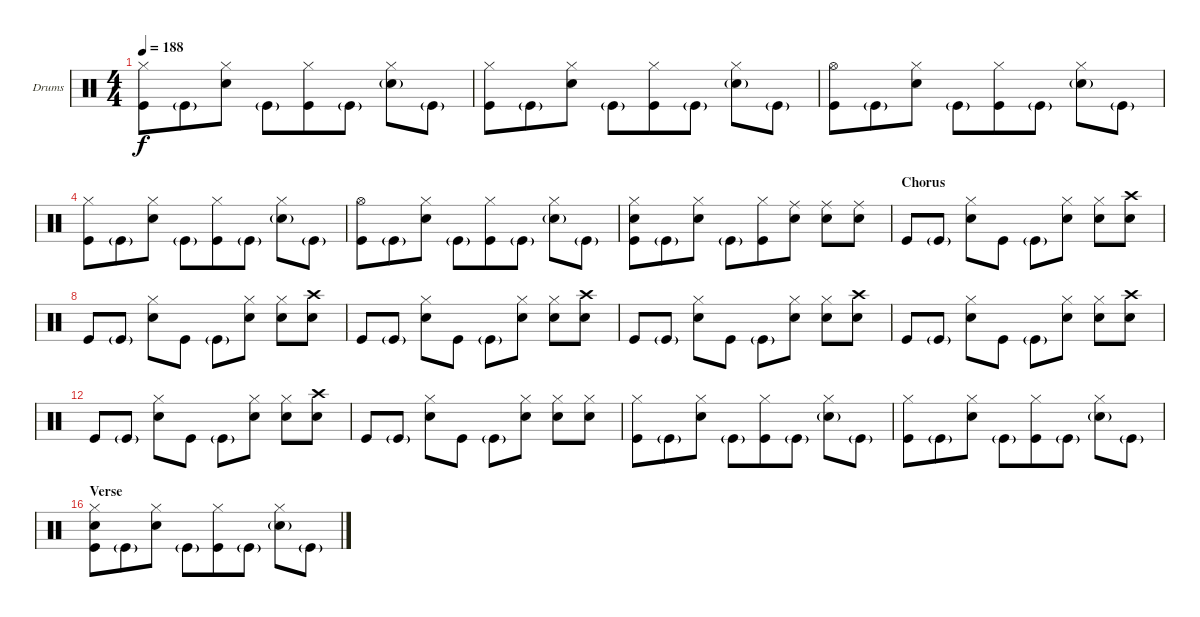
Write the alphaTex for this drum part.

\bracketExtendMode nobrackets
\firstSystemTrackNameOrientation horizontal
\otherSystemsTrackNameOrientation horizontal
\defaultBarNumberDisplay FirstOfSystem
\track ("Drumkit" "Drums") {instrument percussion}
\staff {score}
\articulation defaults
\ts (4 4)
\tempo 188
\clef neutral
\ks c
("Kick (hit)" "Hi-Hat (closed)").8{dy f beam merge} "Kick (hit)"{g}.8{beam merge} ("Snare (hit) 2" "Hi-Hat (closed)").8{beam split} "Kick (hit)"{g}.8{beam merge} ("Kick (hit)" "Hi-Hat (closed)").8 "Kick (hit)"{g}.8 ("Snare (hit) 2"{g} "Hi-Hat (closed)").8 "Kick (hit)"{g}.8 |
("Kick (hit)" "Hi-Hat (closed)").8{beam merge} "Kick (hit)"{g}.8{beam merge} ("Snare (hit) 2" "Hi-Hat (closed)").8{beam split} "Kick (hit)"{g}.8{beam merge} ("Kick (hit)" "Hi-Hat (closed)").8 "Kick (hit)"{g}.8 ("Snare (hit) 2"{g} "Hi-Hat (closed)").8 "Kick (hit)"{g}.8 |
("Hi-Hat (open)" "Kick (hit)").8{beam merge} "Kick (hit)"{g}.8{beam merge} ("Snare (hit) 2" "Hi-Hat (closed)").8{beam split} "Kick (hit)"{g}.8{beam merge} ("Kick (hit)" "Hi-Hat (closed)").8 "Kick (hit)"{g}.8 ("Snare (hit) 2"{g} "Hi-Hat (closed)").8 "Kick (hit)"{g}.8 |
("Kick (hit)" "Hi-Hat (closed)").8{beam merge} "Kick (hit)"{g}.8{beam merge} ("Snare (hit) 2" "Hi-Hat (closed)").8{beam split} "Kick (hit)"{g}.8{beam merge} ("Kick (hit)" "Hi-Hat (closed)").8 "Kick (hit)"{g}.8 ("Snare (hit) 2"{g} "Hi-Hat (closed)").8 "Kick (hit)"{g}.8 |
("Hi-Hat (open)" "Kick (hit)").8{beam merge} "Kick (hit)"{g}.8{beam merge} ("Snare (hit) 2" "Hi-Hat (closed)").8{beam split} "Kick (hit)"{g}.8{beam merge} ("Kick (hit)" "Hi-Hat (closed)").8 "Kick (hit)"{g}.8 ("Snare (hit) 2"{g} "Hi-Hat (closed)").8 "Kick (hit)"{g}.8 |
("Snare (hit) 2" "Kick (hit)" "Hi-Hat (closed)").8{beam merge} "Kick (hit)"{g}.8{beam merge} ("Snare (hit) 2" "Hi-Hat (closed)").8{beam split} "Kick (hit)"{g}.8{beam merge} ("Kick (hit)" "Hi-Hat (closed)").8 ("Snare (hit) 2" "Ride (middle)").8 ("Snare (hit) 2" "Ride (middle)").8 ("Snare (hit) 2" "Ride (middle)").8 |
\section ("" "Chorus")
"Kick (hit)".8 "Kick (hit)"{g}.8 ("Hi-Hat (closed)" "Snare (hit) 2").8 "Kick (hit)".8 "Kick (hit)"{g}.8 ("Hi-Hat (closed)" "Snare (hit) 2").8 ("Hi-Hat (closed)" "Snare (hit) 2").8 ("Crash high (hit)" "Snare (hit) 2").8 |
"Kick (hit)".8 "Kick (hit)"{g}.8 ("Hi-Hat (closed)" "Snare (hit) 2").8 "Kick (hit)".8 "Kick (hit)"{g}.8 ("Hi-Hat (closed)" "Snare (hit) 2").8 ("Hi-Hat (closed)" "Snare (hit) 2").8 ("Crash high (hit)" "Snare (hit) 2").8 |
"Kick (hit)".8 "Kick (hit)"{g}.8 ("Hi-Hat (closed)" "Snare (hit) 2").8 "Kick (hit)".8 "Kick (hit)"{g}.8 ("Hi-Hat (closed)" "Snare (hit) 2").8 ("Hi-Hat (closed)" "Snare (hit) 2").8 ("Crash high (hit)" "Snare (hit) 2").8 |
"Kick (hit)".8 "Kick (hit)"{g}.8 ("Hi-Hat (closed)" "Snare (hit) 2").8 "Kick (hit)".8 "Kick (hit)"{g}.8 ("Hi-Hat (closed)" "Snare (hit) 2").8 ("Hi-Hat (closed)" "Snare (hit) 2").8 ("Crash high (hit)" "Snare (hit) 2").8 |
"Kick (hit)".8 "Kick (hit)"{g}.8 ("Hi-Hat (closed)" "Snare (hit) 2").8 "Kick (hit)".8 "Kick (hit)"{g}.8 ("Hi-Hat (closed)" "Snare (hit) 2").8 ("Hi-Hat (closed)" "Snare (hit) 2").8 ("Crash high (hit)" "Snare (hit) 2").8 |
"Kick (hit)".8 "Kick (hit)"{g}.8 ("Hi-Hat (closed)" "Snare (hit) 2").8 "Kick (hit)".8 "Kick (hit)"{g}.8 ("Hi-Hat (closed)" "Snare (hit) 2").8 ("Hi-Hat (closed)" "Snare (hit) 2").8 ("Crash high (hit)" "Snare (hit) 2").8 |
"Kick (hit)".8 "Kick (hit)"{g}.8 ("Hi-Hat (closed)" "Snare (hit) 2").8 "Kick (hit)".8 "Kick (hit)"{g}.8 ("Hi-Hat (closed)" "Snare (hit) 2").8 ("Hi-Hat (closed)" "Snare (hit) 2").8 ("Snare (hit) 2" "Hi-Hat (closed)").8 |
("Kick (hit)" "Hi-Hat (closed)").8{beam merge} "Kick (hit)"{g}.8{beam merge} ("Snare (hit) 2" "Hi-Hat (closed)").8{beam split} "Kick (hit)"{g}.8{beam merge} ("Kick (hit)" "Hi-Hat (closed)").8 "Kick (hit)"{g}.8 ("Snare (hit) 2"{g} "Hi-Hat (closed)").8 "Kick (hit)"{g}.8 |
("Kick (hit)" "Hi-Hat (closed)").8{beam merge} "Kick (hit)"{g}.8{beam merge} ("Snare (hit) 2" "Hi-Hat (closed)").8{beam split} "Kick (hit)"{g}.8{beam merge} ("Kick (hit)" "Hi-Hat (closed)").8 "Kick (hit)"{g}.8 ("Snare (hit) 2"{g} "Hi-Hat (closed)").8 "Kick (hit)"{g}.8 |
\section ("" "Verse")
("Kick (hit)" "Hi-Hat (closed)" "Snare (hit) 2").8{beam merge} "Kick (hit)"{g}.8{beam merge} ("Snare (hit) 2" "Hi-Hat (closed)").8{beam split} "Kick (hit)"{g}.8{beam merge} ("Kick (hit)" "Hi-Hat (closed)").8 "Kick (hit)"{g}.8 ("Snare (hit) 2"{g} "Hi-Hat (closed)").8 "Kick (hit)"{g}.8
